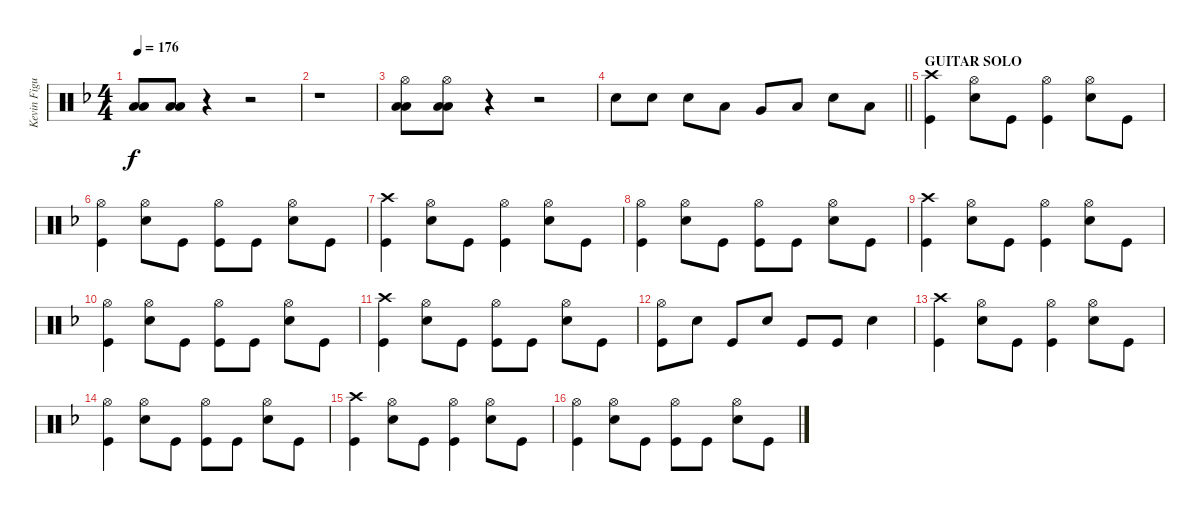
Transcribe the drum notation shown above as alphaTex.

\track ("Kevin Figueiredo - Drums" "Kevin Figu") {instrument percussion}
\staff {score}
\articulation defaults
\ts (4 4)
\tempo 176
\clef neutral
\ks f
("Low Tom (hit)" "Low Floor Tom (hit)").8{dy f} ("Low Tom (hit)" "Low Floor Tom (hit)").8 r.4 r.2 |
r.1 |
("Hi-Hat (open)" "Low Tom (hit)" "Low Floor Tom (hit)").8 ("Hi-Hat (open)" "Low Tom (hit)" "Low Floor Tom (hit)").8 r.4 r.2 |
\barLineRight lightlight "Snare (hit) 2".8 "Snare (hit) 2".8 "Snare (hit) 2".8 "Low Tom (hit)".8 "Very Low Tom (hit)".8 "Low Floor Tom (hit)".8 "Snare (hit) 2".8 "Low Floor Tom (hit)".8
|
\section ("" "GUITAR SOLO")
("Crash high (hit)" "Kick (hit)").4 ("Hi-Hat (open)" "Snare (hit) 2").8 "Kick (hit)".8 ("Hi-Hat (open)" "Kick (hit)").4 ("Hi-Hat (open)" "Snare (hit) 2").8 "Kick (hit)".8 |
("Hi-Hat (open)" "Kick (hit)").4 ("Hi-Hat (open)" "Snare (hit) 2").8 "Kick (hit)".8 ("Hi-Hat (open)" "Kick (hit)").8 "Kick (hit)".8 ("Hi-Hat (open)" "Snare (hit) 2").8 "Kick (hit)".8 |
("Crash high (hit)" "Kick (hit)").4 ("Hi-Hat (open)" "Snare (hit) 2").8 "Kick (hit)".8 ("Hi-Hat (open)" "Kick (hit)").4 ("Hi-Hat (open)" "Snare (hit) 2").8 "Kick (hit)".8 |
("Hi-Hat (open)" "Kick (hit)").4 ("Hi-Hat (open)" "Snare (hit) 2").8 "Kick (hit)".8 ("Hi-Hat (open)" "Kick (hit)").8 "Kick (hit)".8 ("Hi-Hat (open)" "Snare (hit) 2").8 "Kick (hit)".8 |
("Crash high (hit)" "Kick (hit)").4 ("Hi-Hat (open)" "Snare (hit) 2").8 "Kick (hit)".8 ("Hi-Hat (open)" "Kick (hit)").4 ("Hi-Hat (open)" "Snare (hit) 2").8 "Kick (hit)".8 |
("Hi-Hat (open)" "Kick (hit)").4 ("Hi-Hat (open)" "Snare (hit) 2").8 "Kick (hit)".8 ("Hi-Hat (open)" "Kick (hit)").8 "Kick (hit)".8 ("Hi-Hat (open)" "Snare (hit) 2").8 "Kick (hit)".8 |
("Crash high (hit)" "Kick (hit)").4 ("Hi-Hat (open)" "Snare (hit) 2").8 "Kick (hit)".8 ("Hi-Hat (open)" "Kick (hit)").8 "Kick (hit)".8 ("Hi-Hat (open)" "Snare (hit) 2").8 "Kick (hit)".8 |
("Hi-Hat (open)" "Kick (hit)").8 "Snare (hit) 2".8 "Kick (hit)".8 "Snare (hit) 2".8 "Kick (hit)".8 "Kick (hit)".8 "Snare (hit) 2".4 |
("Crash high (hit)" "Kick (hit)").4 ("Hi-Hat (open)" "Snare (hit) 2").8 "Kick (hit)".8 ("Hi-Hat (open)" "Kick (hit)").4 ("Hi-Hat (open)" "Snare (hit) 2").8 "Kick (hit)".8 |
("Hi-Hat (open)" "Kick (hit)").4 ("Hi-Hat (open)" "Snare (hit) 2").8 "Kick (hit)".8 ("Hi-Hat (open)" "Kick (hit)").8 "Kick (hit)".8 ("Hi-Hat (open)" "Snare (hit) 2").8 "Kick (hit)".8 |
("Crash high (hit)" "Kick (hit)").4 ("Hi-Hat (open)" "Snare (hit) 2").8 "Kick (hit)".8 ("Hi-Hat (open)" "Kick (hit)").4 ("Hi-Hat (open)" "Snare (hit) 2").8 "Kick (hit)".8 |
("Hi-Hat (open)" "Kick (hit)").4 ("Hi-Hat (open)" "Snare (hit) 2").8 "Kick (hit)".8 ("Hi-Hat (open)" "Kick (hit)").8 "Kick (hit)".8 ("Hi-Hat (open)" "Snare (hit) 2").8 "Kick (hit)".8
